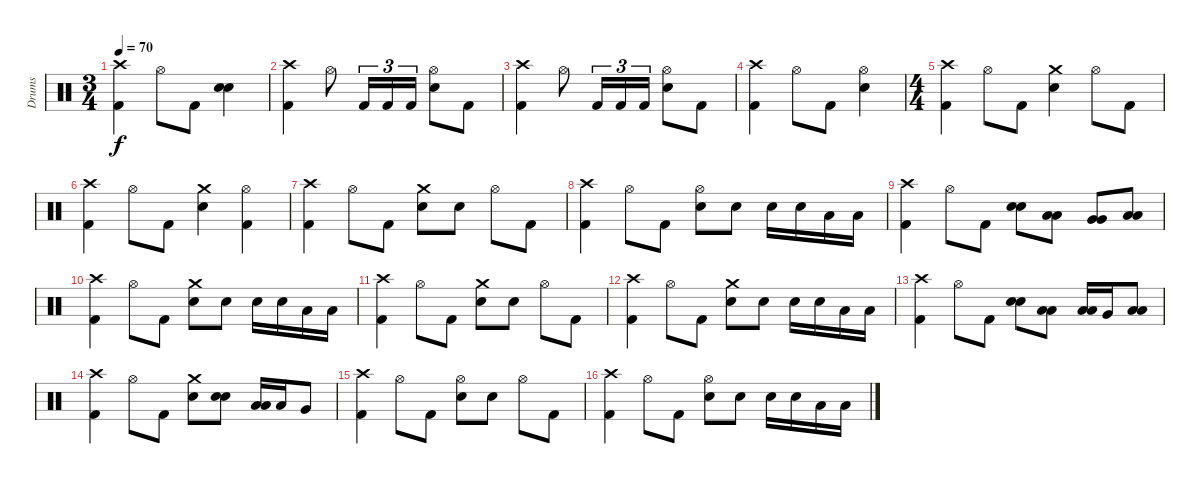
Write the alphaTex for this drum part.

\track ("Drums" "Drums") {instrument percussion}
\staff {score}
\articulation defaults
\ts (3 4)
\tempo 70
\clef neutral
\ks c
("Crash high (hit)" "Kick (hit) 2").4{dy f} "Hi-Hat (open)".8 "Kick (hit) 2".8 ("Electric Snare (hit)" "Electric Snare (hit)").4 |
("Crash high (hit)" "Kick (hit) 2").4 "Hi-Hat (open)".8 "Kick (hit) 2".16{tu (3 2)} "Kick (hit) 2".16{tu (3 2)} "Kick (hit) 2".16{tu (3 2)} ("Hi-Hat (open)" "Electric Snare (hit)").8 "Kick (hit) 2".8 |
("Crash high (hit)" "Kick (hit) 2").4 "Hi-Hat (open)".8 "Kick (hit) 2".16{tu (3 2)} "Kick (hit) 2".16{tu (3 2)} "Kick (hit) 2".16{tu (3 2)} ("Hi-Hat (open)" "Electric Snare (hit)").8 "Kick (hit) 2".8 |
("Crash high (hit)" "Kick (hit) 2").4 "Hi-Hat (open)".8 "Kick (hit) 2".8 ("Hi-Hat (open)" "Electric Snare (hit)").4 |
\ts (4 4)
("Crash high (hit)" "Kick (hit) 2").4 "Hi-Hat (open)".8 "Kick (hit) 2".8 ("Crash medium (hit)" "Electric Snare (hit)").4 "Hi-Hat (open)".8 "Kick (hit) 2".8 |
("Crash high (hit)" "Kick (hit) 2").4 "Hi-Hat (open)".8 "Kick (hit) 2".8 ("Crash medium (hit)" "Electric Snare (hit)").4 ("Hi-Hat (open)" "Kick (hit) 2").4 |
("Crash high (hit)" "Kick (hit) 2").4 "Hi-Hat (open)".8 "Kick (hit) 2".8 ("Crash medium (hit)" "Electric Snare (hit)").8 "Electric Snare (hit)".8 "Hi-Hat (open)".8 "Kick (hit) 2".8 |
("Crash high (hit)" "Kick (hit) 2").4 "Hi-Hat (open)".8 "Kick (hit) 2".8 ("Hi-Hat (open)" "Electric Snare (hit)").8 "Electric Snare (hit)".8 "Electric Snare (hit)".16 "Electric Snare (hit)".16 "Low Tom (hit)".16 "Low Tom (hit)".16 |
("Crash high (hit)" "Kick (hit) 2").4 "Hi-Hat (open)".8 "Kick (hit) 2".8 ("Electric Snare (hit)" "Electric Snare (hit)").8{bu 60} ("Low Tom (hit)" "Low Tom (hit)").8{bu 60} ("Very Low Tom (hit)" "Very Low Tom (hit)").8{bu 60} ("Low Floor Tom (hit)" "Low Floor Tom (hit)").8{bu 60} |
("Crash high (hit)" "Kick (hit) 2").4 "Hi-Hat (open)".8 "Kick (hit) 2".8 ("Crash medium (hit)" "Electric Snare (hit)").8 "Electric Snare (hit)".8 "Electric Snare (hit)".16 "Electric Snare (hit)".16 "Low Tom (hit)".16 "Low Tom (hit)".16 |
("Crash high (hit)" "Kick (hit) 2").4 "Hi-Hat (open)".8 "Kick (hit) 2".8 ("Crash medium (hit)" "Electric Snare (hit)").8 "Electric Snare (hit)".8 "Hi-Hat (open)".8 "Kick (hit) 2".8 |
("Crash high (hit)" "Kick (hit) 2").4 "Hi-Hat (open)".8 "Kick (hit) 2".8 ("Crash medium (hit)" "Electric Snare (hit)").8 "Electric Snare (hit)".8 "Electric Snare (hit)".16 "Electric Snare (hit)".16 "Low Tom (hit)".16 "Low Tom (hit)".16 |
("Crash high (hit)" "Kick (hit) 2").4 "Hi-Hat (open)".8 "Kick (hit) 2".8 ("Electric Snare (hit)" "Electric Snare (hit)").8{bu 60} ("Low Tom (hit)" "Low Tom (hit)").8{bu 60} ("Low Tom (hit)" "Low Tom (hit)").16{bu 60} "Very Low Tom (hit)".16 ("Low Floor Tom (hit)" "Low Floor Tom (hit)").8{bu 60} |
("Crash high (hit)" "Kick (hit) 2").4 "Hi-Hat (open)".8 "Kick (hit) 2".8 ("Crash medium (hit)" "Electric Snare (hit)").8 ("Electric Snare (hit)" "Electric Snare (hit)").8{bu 60} ("Low Tom (hit)" "Low Tom (hit)").16{bu 60} "Low Tom (hit)".16 "Very Low Tom (hit)".8 |
("Crash high (hit)" "Kick (hit) 2").4 "Hi-Hat (open)".8 "Kick (hit) 2".8 ("Hi-Hat (open)" "Electric Snare (hit)").8 "Electric Snare (hit)".8 "Hi-Hat (open)".8 "Kick (hit) 2".8 |
("Crash high (hit)" "Kick (hit) 2").4 "Hi-Hat (open)".8 "Kick (hit) 2".8 ("Hi-Hat (open)" "Electric Snare (hit)").8 "Electric Snare (hit)".8 "Electric Snare (hit)".16 "Electric Snare (hit)".16 "Low Tom (hit)".16 "Low Tom (hit)".16
